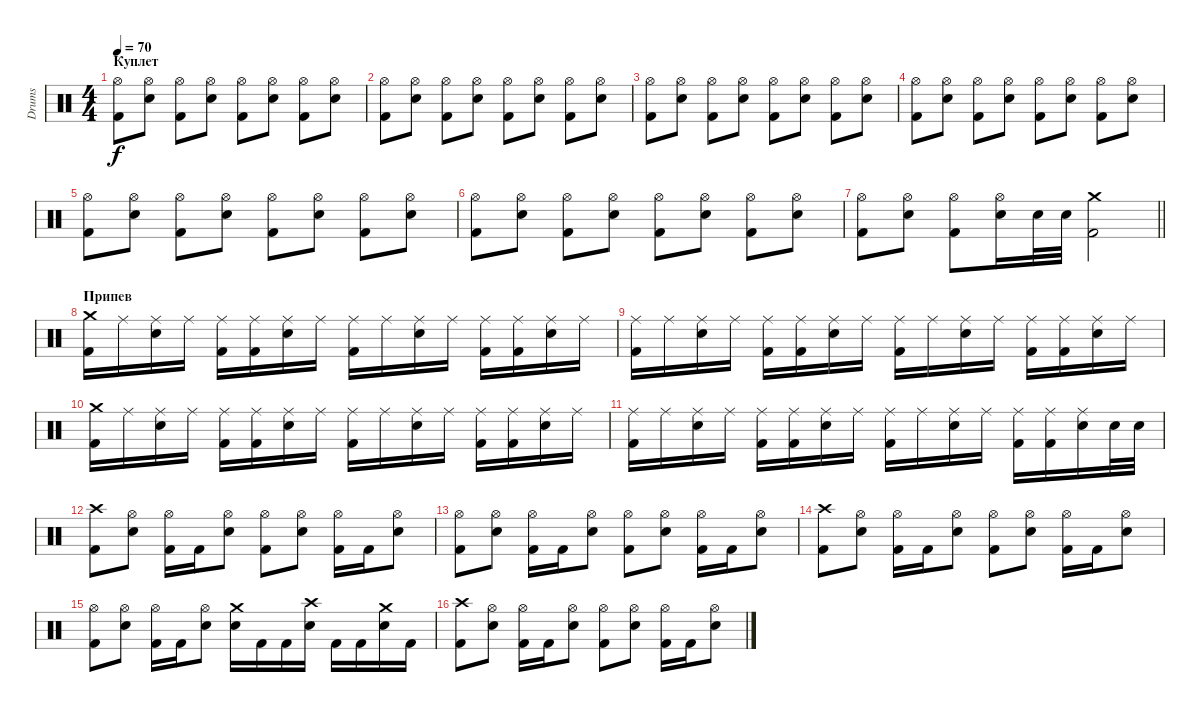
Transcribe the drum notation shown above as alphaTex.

\track ("Drums" "Drums") {instrument percussion}
\staff {score}
\articulation defaults
\ts (4 4)
\section ("" "Куплет")
\tempo 70
\clef neutral
\ks c
("Hi-Hat (open)" "Kick (hit) 2").8{dy f} ("Hi-Hat (open)" "Snare (hit) 2").8 ("Hi-Hat (open)" "Kick (hit) 2").8 ("Hi-Hat (open)" "Snare (hit) 2").8 ("Hi-Hat (open)" "Kick (hit) 2").8 ("Hi-Hat (open)" "Snare (hit) 2").8 ("Hi-Hat (open)" "Kick (hit) 2").8 ("Hi-Hat (open)" "Snare (hit) 2").8 |
("Hi-Hat (open)" "Kick (hit) 2").8 ("Hi-Hat (open)" "Snare (hit) 2").8 ("Hi-Hat (open)" "Kick (hit) 2").8 ("Hi-Hat (open)" "Snare (hit) 2").8 ("Hi-Hat (open)" "Kick (hit) 2").8 ("Hi-Hat (open)" "Snare (hit) 2").8 ("Hi-Hat (open)" "Kick (hit) 2").8 ("Hi-Hat (open)" "Snare (hit) 2").8 |
("Hi-Hat (open)" "Kick (hit) 2").8 ("Hi-Hat (open)" "Snare (hit) 2").8 ("Hi-Hat (open)" "Kick (hit) 2").8 ("Hi-Hat (open)" "Snare (hit) 2").8 ("Hi-Hat (open)" "Kick (hit) 2").8 ("Hi-Hat (open)" "Snare (hit) 2").8 ("Hi-Hat (open)" "Kick (hit) 2").8 ("Hi-Hat (open)" "Snare (hit) 2").8 |
("Hi-Hat (open)" "Kick (hit) 2").8 ("Hi-Hat (open)" "Snare (hit) 2").8 ("Hi-Hat (open)" "Kick (hit) 2").8 ("Hi-Hat (open)" "Snare (hit) 2").8 ("Hi-Hat (open)" "Kick (hit) 2").8 ("Hi-Hat (open)" "Snare (hit) 2").8 ("Hi-Hat (open)" "Kick (hit) 2").8 ("Hi-Hat (open)" "Snare (hit) 2").8 |
("Hi-Hat (open)" "Kick (hit) 2").8 ("Hi-Hat (open)" "Snare (hit) 2").8 ("Hi-Hat (open)" "Kick (hit) 2").8 ("Hi-Hat (open)" "Snare (hit) 2").8 ("Hi-Hat (open)" "Kick (hit) 2").8 ("Hi-Hat (open)" "Snare (hit) 2").8 ("Hi-Hat (open)" "Kick (hit) 2").8 ("Hi-Hat (open)" "Snare (hit) 2").8 |
("Hi-Hat (open)" "Kick (hit) 2").8 ("Hi-Hat (open)" "Snare (hit) 2").8 ("Hi-Hat (open)" "Kick (hit) 2").8 ("Hi-Hat (open)" "Snare (hit) 2").8 ("Hi-Hat (open)" "Kick (hit) 2").8 ("Hi-Hat (open)" "Snare (hit) 2").8 ("Hi-Hat (open)" "Kick (hit) 2").8 ("Hi-Hat (open)" "Snare (hit) 2").8 |
\barLineRight lightlight
("Hi-Hat (open)" "Kick (hit) 2").8 ("Hi-Hat (open)" "Snare (hit) 2").8 ("Hi-Hat (open)" "Kick (hit) 2").8 ("Hi-Hat (open)" "Snare (hit) 2").16 "Snare (hit) 2".32 "Snare (hit) 2".32 ("Crash medium (hit)" "Kick (hit) 2").2 |
\section ("" "Припев")
("Crash medium (hit)" "Kick (hit) 2").16 "Ride (middle)".16 ("Ride (middle)" "Snare (hit) 2").16 "Ride (middle)".16 ("Ride (middle)" "Kick (hit) 2").16 ("Ride (middle)" "Kick (hit) 2").16 ("Ride (middle)" "Snare (hit) 2").16 "Ride (middle)".16 ("Ride (middle)" "Kick (hit) 2").16 "Ride (middle)".16 ("Ride (middle)" "Snare (hit) 2").16 "Ride (middle)".16 ("Ride (middle)" "Kick (hit) 2").16 ("Ride (middle)" "Kick (hit) 2").16 ("Ride (middle)" "Snare (hit) 2").16 "Ride (middle)".16 |
("Ride (middle)" "Kick (hit) 2").16 "Ride (middle)".16 ("Ride (middle)" "Snare (hit) 2").16 "Ride (middle)".16 ("Ride (middle)" "Kick (hit) 2").16 ("Ride (middle)" "Kick (hit) 2").16 ("Ride (middle)" "Snare (hit) 2").16 "Ride (middle)".16 ("Ride (middle)" "Kick (hit) 2").16 "Ride (middle)".16 ("Ride (middle)" "Snare (hit) 2").16 "Ride (middle)".16 ("Ride (middle)" "Kick (hit) 2").16 ("Ride (middle)" "Kick (hit) 2").16 ("Ride (middle)" "Snare (hit) 2").16 "Ride (middle)".16 |
("Crash medium (hit)" "Kick (hit) 2").16 "Ride (middle)".16 ("Ride (middle)" "Snare (hit) 2").16 "Ride (middle)".16 ("Ride (middle)" "Kick (hit) 2").16 ("Ride (middle)" "Kick (hit) 2").16 ("Ride (middle)" "Snare (hit) 2").16 "Ride (middle)".16 ("Ride (middle)" "Kick (hit) 2").16 "Ride (middle)".16 ("Ride (middle)" "Snare (hit) 2").16 "Ride (middle)".16 ("Ride (middle)" "Kick (hit) 2").16 ("Ride (middle)" "Kick (hit) 2").16 ("Ride (middle)" "Snare (hit) 2").16 "Ride (middle)".16 |
("Ride (middle)" "Kick (hit) 2").16 "Ride (middle)".16 ("Ride (middle)" "Snare (hit) 2").16 "Ride (middle)".16 ("Ride (middle)" "Kick (hit) 2").16 ("Ride (middle)" "Kick (hit) 2").16 ("Ride (middle)" "Snare (hit) 2").16 "Ride (middle)".16 ("Ride (middle)" "Kick (hit) 2").16 "Ride (middle)".16 ("Ride (middle)" "Snare (hit) 2").16 "Ride (middle)".16 ("Ride (middle)" "Kick (hit) 2").16 ("Ride (middle)" "Kick (hit) 2").16 ("Ride (middle)" "Snare (hit) 2").16 "Snare (hit) 2".32 "Snare (hit) 2".32 |
("Crash high (hit)" "Kick (hit) 2").8 ("Hi-Hat (open)" "Snare (hit) 2").8 ("Hi-Hat (open)" "Kick (hit) 2").16 "Kick (hit) 2".16 ("Hi-Hat (open)" "Snare (hit) 2").8 ("Hi-Hat (open)" "Kick (hit) 2").8 ("Hi-Hat (open)" "Snare (hit) 2").8 ("Hi-Hat (open)" "Kick (hit) 2").16 "Kick (hit) 2".16 ("Hi-Hat (open)" "Snare (hit) 2").8 |
("Hi-Hat (open)" "Kick (hit) 2").8 ("Hi-Hat (open)" "Snare (hit) 2").8 ("Hi-Hat (open)" "Kick (hit) 2").16 "Kick (hit) 2".16 ("Hi-Hat (open)" "Snare (hit) 2").8 ("Hi-Hat (open)" "Kick (hit) 2").8 ("Hi-Hat (open)" "Snare (hit) 2").8 ("Hi-Hat (open)" "Kick (hit) 2").16 "Kick (hit) 2".16 ("Hi-Hat (open)" "Snare (hit) 2").8 |
("Crash high (hit)" "Kick (hit) 2").8 ("Hi-Hat (open)" "Snare (hit) 2").8 ("Hi-Hat (open)" "Kick (hit) 2").16 "Kick (hit) 2".16 ("Hi-Hat (open)" "Snare (hit) 2").8 ("Hi-Hat (open)" "Kick (hit) 2").8 ("Hi-Hat (open)" "Snare (hit) 2").8 ("Hi-Hat (open)" "Kick (hit) 2").16 "Kick (hit) 2".16 ("Hi-Hat (open)" "Snare (hit) 2").8 |
("Hi-Hat (open)" "Kick (hit) 2").8 ("Hi-Hat (open)" "Snare (hit) 2").8 ("Hi-Hat (open)" "Kick (hit) 2").16 "Kick (hit) 2".16 ("Hi-Hat (open)" "Snare (hit) 2").8 ("Crash medium (hit)" "Snare (hit) 2").16 "Kick (hit) 2".16 "Kick (hit) 2".16 ("Crash high (hit)" "Snare (hit) 2").16 "Kick (hit) 2".16 "Kick (hit) 2".16 ("Crash medium (hit)" "Snare (hit) 2").16 "Kick (hit) 2".16 |
("Crash high (hit)" "Kick (hit) 2").8 ("Hi-Hat (open)" "Snare (hit) 2").8 ("Hi-Hat (open)" "Kick (hit) 2").16 "Kick (hit) 2".16 ("Hi-Hat (open)" "Snare (hit) 2").8 ("Hi-Hat (open)" "Kick (hit) 2").8 ("Hi-Hat (open)" "Snare (hit) 2").8 ("Hi-Hat (open)" "Kick (hit) 2").16 "Kick (hit) 2".16 ("Hi-Hat (open)" "Snare (hit) 2").8
